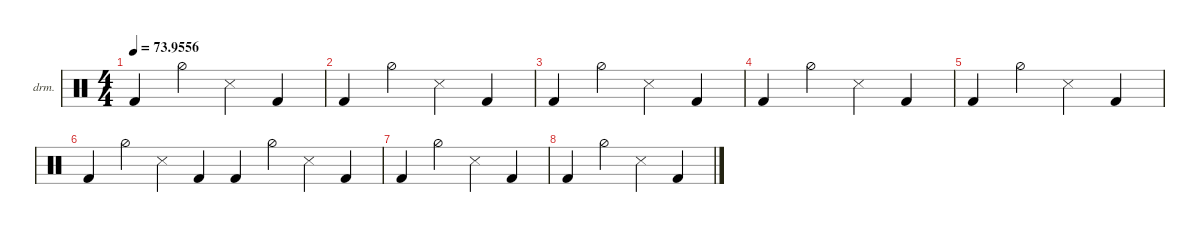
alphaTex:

\defaultSystemsLayout 4
\hideDynamics
\bracketExtendMode nobrackets
\firstSystemTrackNameOrientation horizontal
\otherSystemsTrackNameOrientation horizontal
\track ("Drumkit" "drm.") {instrument percussion}
\staff {score}
\articulation defaults
\ts (4 4)
\tempo
73.9556
\accidentals auto
\clef neutral
\ottava regular
\simile none
\ks c "Kick (hit) 2".4{dy mf beam Up} "Hi-Hat (half)".4{beam Down} "Snare (side stick) 3".4{beam Down} "Kick (hit) 2".4{beam Up}
|
"Kick (hit) 2".4{beam Up} "Hi-Hat (half)".4{beam Down} "Snare (side stick) 3".4{beam Down} "Kick (hit) 2".4{beam Up} |
"Kick (hit) 2".4{beam Up} "Hi-Hat (half)".4{beam Down} "Snare (side stick) 3".4{beam Down} "Kick (hit) 2".4{beam Up} |
"Kick (hit) 2".4{beam Up} "Hi-Hat (half)".4{beam Down} "Snare (side stick) 3".4{beam Down} "Kick (hit) 2".4{beam Up} |
"Kick (hit) 2".4{beam Up} "Hi-Hat (half)".4{beam Down} "Snare (side stick) 3".4{beam Down} "Kick (hit) 2".4{beam Up} |
"Kick (hit) 2".4{beam Up} "Hi-Hat (half)".4{beam Down} "Snare (side stick) 3".4{beam Down} "Kick (hit) 2".4{beam Up} "Kick (hit) 2".4{beam Up} "Hi-Hat (half)".4{beam Down} "Snare (side stick) 3".4{beam Down} "Kick (hit) 2".4{beam Up} |
"Kick (hit) 2".4{beam Up} "Hi-Hat (half)".4{beam Down} "Snare (side stick) 3".4{beam Down} "Kick (hit) 2".4{beam Up} |
"Kick (hit) 2".4{beam Up} "Hi-Hat (half)".4{beam Down} "Snare (side stick) 3".4{beam Down} "Kick (hit) 2".4{beam Up}
